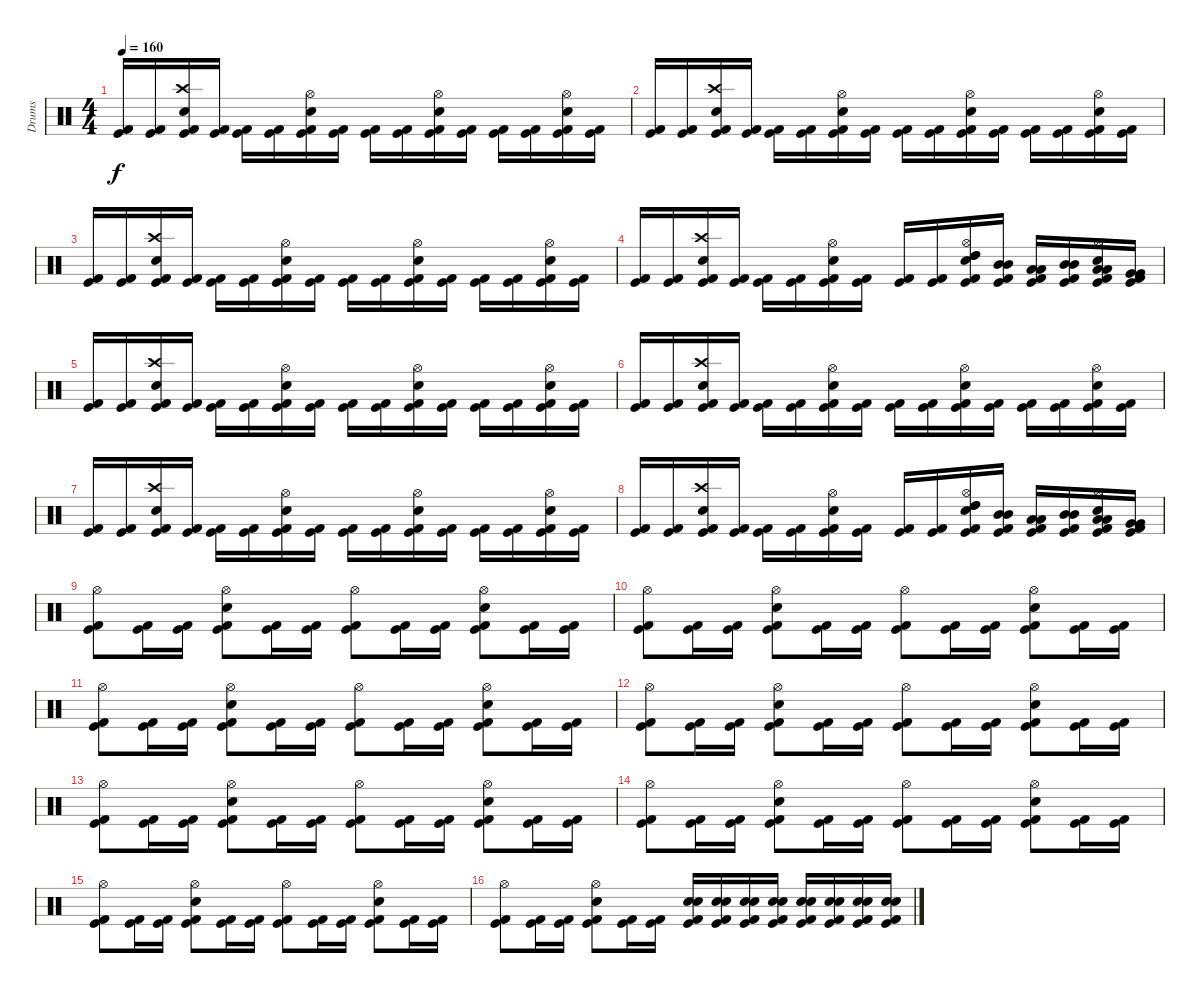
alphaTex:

\track ("Drums" "Drums") {instrument percussion}
\staff {score}
\articulation defaults
\ts (4 4)
\tempo 160
\clef neutral
\ks c
("Kick (hit) 2" "Kick (hit)").16{dy f} ("Kick (hit) 2" "Kick (hit)").16 ("Kick (hit) 2" "Kick (hit)" "Crash high (hit)" "Snare (hit) 2").16 ("Kick (hit) 2" "Kick (hit)").16 ("Kick (hit) 2" "Kick (hit)").16 ("Kick (hit) 2" "Kick (hit)").16 ("Kick (hit) 2" "Kick (hit)" "Hi-Hat (open)" "Snare (hit) 2").16 ("Kick (hit) 2" "Kick (hit)").16 ("Kick (hit) 2" "Kick (hit)").16 ("Kick (hit) 2" "Kick (hit)").16 ("Kick (hit) 2" "Kick (hit)" "Hi-Hat (open)" "Snare (hit) 2").16 ("Kick (hit) 2" "Kick (hit)").16 ("Kick (hit) 2" "Kick (hit)").16 ("Kick (hit) 2" "Kick (hit)").16 ("Kick (hit) 2" "Kick (hit)" "Hi-Hat (open)" "Snare (hit) 2").16 ("Kick (hit) 2" "Kick (hit)").16 |
("Kick (hit) 2" "Kick (hit)").16 ("Kick (hit) 2" "Kick (hit)").16 ("Kick (hit) 2" "Kick (hit)" "Crash high (hit)" "Snare (hit) 2").16 ("Kick (hit) 2" "Kick (hit)").16 ("Kick (hit) 2" "Kick (hit)").16 ("Kick (hit) 2" "Kick (hit)").16 ("Kick (hit) 2" "Kick (hit)" "Hi-Hat (open)" "Snare (hit) 2").16 ("Kick (hit) 2" "Kick (hit)").16 ("Kick (hit) 2" "Kick (hit)").16 ("Kick (hit) 2" "Kick (hit)").16 ("Kick (hit) 2" "Kick (hit)" "Hi-Hat (open)" "Snare (hit) 2").16 ("Kick (hit) 2" "Kick (hit)").16 ("Kick (hit) 2" "Kick (hit)").16 ("Kick (hit) 2" "Kick (hit)").16 ("Kick (hit) 2" "Kick (hit)" "Hi-Hat (open)" "Snare (hit) 2").16 ("Kick (hit) 2" "Kick (hit)").16 |
("Kick (hit) 2" "Kick (hit)").16 ("Kick (hit) 2" "Kick (hit)").16 ("Kick (hit) 2" "Kick (hit)" "Crash high (hit)" "Snare (hit) 2").16 ("Kick (hit) 2" "Kick (hit)").16 ("Kick (hit) 2" "Kick (hit)").16 ("Kick (hit) 2" "Kick (hit)").16 ("Kick (hit) 2" "Kick (hit)" "Hi-Hat (open)" "Snare (hit) 2").16 ("Kick (hit) 2" "Kick (hit)").16 ("Kick (hit) 2" "Kick (hit)").16 ("Kick (hit) 2" "Kick (hit)").16 ("Kick (hit) 2" "Kick (hit)" "Hi-Hat (open)" "Snare (hit) 2").16 ("Kick (hit) 2" "Kick (hit)").16 ("Kick (hit) 2" "Kick (hit)").16 ("Kick (hit) 2" "Kick (hit)").16 ("Kick (hit) 2" "Kick (hit)" "Hi-Hat (open)" "Snare (hit) 2").16 ("Kick (hit) 2" "Kick (hit)").16 |
("Kick (hit) 2" "Kick (hit)").16 ("Kick (hit) 2" "Kick (hit)").16 ("Kick (hit) 2" "Kick (hit)" "Crash high (hit)" "Snare (hit) 2").16 ("Kick (hit) 2" "Kick (hit)").16 ("Kick (hit) 2" "Kick (hit)").16 ("Kick (hit) 2" "Kick (hit)").16 ("Kick (hit) 2" "Kick (hit)" "Hi-Hat (open)" "Snare (hit) 2").16 ("Kick (hit) 2" "Kick (hit)").16 ("Kick (hit) 2" "Kick (hit)").16 ("Kick (hit) 2" "Kick (hit)").16 ("Kick (hit) 2" "Kick (hit)" "Hi-Hat (open)" "Snare (hit) 2" "High Tom (hit)" "High Tom (hit)").16 ("Mid Tom (hit)" "Mid Tom (hit)" "Kick (hit) 2" "Kick (hit)").16 ("Low Tom (hit)" "Low Tom (hit)" "Kick (hit) 2" "Kick (hit)").16 ("Mid Tom (hit)" "Mid Tom (hit)" "Kick (hit) 2" "Kick (hit)").16 ("Low Tom (hit)" "Low Tom (hit)" "Hi-Hat (open)" "Snare (hit) 2" "Kick (hit) 2" "Kick (hit)").16 ("Very Low Tom (hit)" "Very Low Tom (hit)" "Kick (hit) 2" "Kick (hit)").16 |
("Kick (hit) 2" "Kick (hit)").16 ("Kick (hit) 2" "Kick (hit)").16 ("Kick (hit) 2" "Kick (hit)" "Crash high (hit)" "Snare (hit) 2").16 ("Kick (hit) 2" "Kick (hit)").16 ("Kick (hit) 2" "Kick (hit)").16 ("Kick (hit) 2" "Kick (hit)").16 ("Kick (hit) 2" "Kick (hit)" "Hi-Hat (open)" "Snare (hit) 2").16 ("Kick (hit) 2" "Kick (hit)").16 ("Kick (hit) 2" "Kick (hit)").16 ("Kick (hit) 2" "Kick (hit)").16 ("Kick (hit) 2" "Kick (hit)" "Hi-Hat (open)" "Snare (hit) 2").16 ("Kick (hit) 2" "Kick (hit)").16 ("Kick (hit) 2" "Kick (hit)").16 ("Kick (hit) 2" "Kick (hit)").16 ("Kick (hit) 2" "Kick (hit)" "Hi-Hat (open)" "Snare (hit) 2").16 ("Kick (hit) 2" "Kick (hit)").16 |
("Kick (hit) 2" "Kick (hit)").16 ("Kick (hit) 2" "Kick (hit)").16 ("Kick (hit) 2" "Kick (hit)" "Crash high (hit)" "Snare (hit) 2").16 ("Kick (hit) 2" "Kick (hit)").16 ("Kick (hit) 2" "Kick (hit)").16 ("Kick (hit) 2" "Kick (hit)").16 ("Kick (hit) 2" "Kick (hit)" "Hi-Hat (open)" "Snare (hit) 2").16 ("Kick (hit) 2" "Kick (hit)").16 ("Kick (hit) 2" "Kick (hit)").16 ("Kick (hit) 2" "Kick (hit)").16 ("Kick (hit) 2" "Kick (hit)" "Hi-Hat (open)" "Snare (hit) 2").16 ("Kick (hit) 2" "Kick (hit)").16 ("Kick (hit) 2" "Kick (hit)").16 ("Kick (hit) 2" "Kick (hit)").16 ("Kick (hit) 2" "Kick (hit)" "Hi-Hat (open)" "Snare (hit) 2").16 ("Kick (hit) 2" "Kick (hit)").16 |
("Kick (hit) 2" "Kick (hit)").16 ("Kick (hit) 2" "Kick (hit)").16 ("Kick (hit) 2" "Kick (hit)" "Crash high (hit)" "Snare (hit) 2").16 ("Kick (hit) 2" "Kick (hit)").16 ("Kick (hit) 2" "Kick (hit)").16 ("Kick (hit) 2" "Kick (hit)").16 ("Kick (hit) 2" "Kick (hit)" "Hi-Hat (open)" "Snare (hit) 2").16 ("Kick (hit) 2" "Kick (hit)").16 ("Kick (hit) 2" "Kick (hit)").16 ("Kick (hit) 2" "Kick (hit)").16 ("Kick (hit) 2" "Kick (hit)" "Hi-Hat (open)" "Snare (hit) 2").16 ("Kick (hit) 2" "Kick (hit)").16 ("Kick (hit) 2" "Kick (hit)").16 ("Kick (hit) 2" "Kick (hit)").16 ("Kick (hit) 2" "Kick (hit)" "Hi-Hat (open)" "Snare (hit) 2").16 ("Kick (hit) 2" "Kick (hit)").16 |
("Kick (hit) 2" "Kick (hit)").16 ("Kick (hit) 2" "Kick (hit)").16 ("Kick (hit) 2" "Kick (hit)" "Crash high (hit)" "Snare (hit) 2").16 ("Kick (hit) 2" "Kick (hit)").16 ("Kick (hit) 2" "Kick (hit)").16 ("Kick (hit) 2" "Kick (hit)").16 ("Kick (hit) 2" "Kick (hit)" "Hi-Hat (open)" "Snare (hit) 2").16 ("Kick (hit) 2" "Kick (hit)").16 ("Kick (hit) 2" "Kick (hit)").16 ("Kick (hit) 2" "Kick (hit)").16 ("Kick (hit) 2" "Kick (hit)" "Hi-Hat (open)" "Snare (hit) 2" "High Tom (hit)" "High Tom (hit)").16 ("Mid Tom (hit)" "Mid Tom (hit)" "Kick (hit) 2" "Kick (hit)").16 ("Low Tom (hit)" "Low Tom (hit)" "Kick (hit) 2" "Kick (hit)").16 ("Mid Tom (hit)" "Mid Tom (hit)" "Kick (hit) 2" "Kick (hit)").16 ("Low Tom (hit)" "Low Tom (hit)" "Hi-Hat (open)" "Snare (hit) 2" "Kick (hit) 2" "Kick (hit)").16 ("Very Low Tom (hit)" "Very Low Tom (hit)" "Kick (hit) 2" "Kick (hit)").16 |
("Kick (hit) 2" "Kick (hit)" "Hi-Hat (open)").8 ("Kick (hit) 2" "Kick (hit)").16 ("Kick (hit) 2" "Kick (hit)").16 ("Kick (hit) 2" "Kick (hit)" "Snare (hit) 2" "Hi-Hat (open)").8 ("Kick (hit) 2" "Kick (hit)").16 ("Kick (hit) 2" "Kick (hit)").16 ("Kick (hit) 2" "Kick (hit)" "Hi-Hat (open)").8 ("Kick (hit) 2" "Kick (hit)").16 ("Kick (hit) 2" "Kick (hit)").16 ("Kick (hit) 2" "Kick (hit)" "Snare (hit) 2" "Hi-Hat (open)").8 ("Kick (hit) 2" "Kick (hit)").16 ("Kick (hit) 2" "Kick (hit)").16 |
("Kick (hit) 2" "Kick (hit)" "Hi-Hat (open)").8 ("Kick (hit) 2" "Kick (hit)").16 ("Kick (hit) 2" "Kick (hit)").16 ("Kick (hit) 2" "Kick (hit)" "Snare (hit) 2" "Hi-Hat (open)").8 ("Kick (hit) 2" "Kick (hit)").16 ("Kick (hit) 2" "Kick (hit)").16 ("Kick (hit) 2" "Kick (hit)" "Hi-Hat (open)").8 ("Kick (hit) 2" "Kick (hit)").16 ("Kick (hit) 2" "Kick (hit)").16 ("Kick (hit) 2" "Kick (hit)" "Snare (hit) 2" "Hi-Hat (open)").8 ("Kick (hit) 2" "Kick (hit)").16 ("Kick (hit) 2" "Kick (hit)").16 |
("Kick (hit) 2" "Kick (hit)" "Hi-Hat (open)").8 ("Kick (hit) 2" "Kick (hit)").16 ("Kick (hit) 2" "Kick (hit)").16 ("Kick (hit) 2" "Kick (hit)" "Snare (hit) 2" "Hi-Hat (open)").8 ("Kick (hit) 2" "Kick (hit)").16 ("Kick (hit) 2" "Kick (hit)").16 ("Kick (hit) 2" "Kick (hit)" "Hi-Hat (open)").8 ("Kick (hit) 2" "Kick (hit)").16 ("Kick (hit) 2" "Kick (hit)").16 ("Kick (hit) 2" "Kick (hit)" "Snare (hit) 2" "Hi-Hat (open)").8 ("Kick (hit) 2" "Kick (hit)").16 ("Kick (hit) 2" "Kick (hit)").16 |
("Kick (hit) 2" "Kick (hit)" "Hi-Hat (open)").8 ("Kick (hit) 2" "Kick (hit)").16 ("Kick (hit) 2" "Kick (hit)").16 ("Kick (hit) 2" "Kick (hit)" "Snare (hit) 2" "Hi-Hat (open)").8 ("Kick (hit) 2" "Kick (hit)").16 ("Kick (hit) 2" "Kick (hit)").16 ("Kick (hit) 2" "Kick (hit)" "Hi-Hat (open)").8 ("Kick (hit) 2" "Kick (hit)").16 ("Kick (hit) 2" "Kick (hit)").16 ("Kick (hit) 2" "Kick (hit)" "Snare (hit) 2" "Hi-Hat (open)").8 ("Kick (hit) 2" "Kick (hit)").16 ("Kick (hit) 2" "Kick (hit)").16 |
("Kick (hit) 2" "Kick (hit)" "Hi-Hat (open)").8 ("Kick (hit) 2" "Kick (hit)").16 ("Kick (hit) 2" "Kick (hit)").16 ("Kick (hit) 2" "Kick (hit)" "Snare (hit) 2" "Hi-Hat (open)").8 ("Kick (hit) 2" "Kick (hit)").16 ("Kick (hit) 2" "Kick (hit)").16 ("Kick (hit) 2" "Kick (hit)" "Hi-Hat (open)").8 ("Kick (hit) 2" "Kick (hit)").16 ("Kick (hit) 2" "Kick (hit)").16 ("Kick (hit) 2" "Kick (hit)" "Snare (hit) 2" "Hi-Hat (open)").8 ("Kick (hit) 2" "Kick (hit)").16 ("Kick (hit) 2" "Kick (hit)").16 |
("Kick (hit) 2" "Kick (hit)" "Hi-Hat (open)").8 ("Kick (hit) 2" "Kick (hit)").16 ("Kick (hit) 2" "Kick (hit)").16 ("Kick (hit) 2" "Kick (hit)" "Snare (hit) 2" "Hi-Hat (open)").8 ("Kick (hit) 2" "Kick (hit)").16 ("Kick (hit) 2" "Kick (hit)").16 ("Kick (hit) 2" "Kick (hit)" "Hi-Hat (open)").8 ("Kick (hit) 2" "Kick (hit)").16 ("Kick (hit) 2" "Kick (hit)").16 ("Kick (hit) 2" "Kick (hit)" "Snare (hit) 2" "Hi-Hat (open)").8 ("Kick (hit) 2" "Kick (hit)").16 ("Kick (hit) 2" "Kick (hit)").16 |
("Kick (hit) 2" "Kick (hit)" "Hi-Hat (open)").8 ("Kick (hit) 2" "Kick (hit)").16 ("Kick (hit) 2" "Kick (hit)").16 ("Kick (hit) 2" "Kick (hit)" "Snare (hit) 2" "Hi-Hat (open)").8 ("Kick (hit) 2" "Kick (hit)").16 ("Kick (hit) 2" "Kick (hit)").16 ("Kick (hit) 2" "Kick (hit)" "Hi-Hat (open)").8 ("Kick (hit) 2" "Kick (hit)").16 ("Kick (hit) 2" "Kick (hit)").16 ("Kick (hit) 2" "Kick (hit)" "Snare (hit) 2" "Hi-Hat (open)").8 ("Kick (hit) 2" "Kick (hit)").16 ("Kick (hit) 2" "Kick (hit)").16 |
("Kick (hit) 2" "Kick (hit)" "Hi-Hat (open)").8 ("Kick (hit) 2" "Kick (hit)").16 ("Kick (hit) 2" "Kick (hit)").16 ("Kick (hit) 2" "Kick (hit)" "Snare (hit) 2" "Hi-Hat (open)").8 ("Kick (hit) 2" "Kick (hit)").16 ("Kick (hit) 2" "Kick (hit)").16 ("Kick (hit) 2" "Kick (hit)" "Snare (hit) 2" "Snare (hit) 2").16 ("Kick (hit) 2" "Kick (hit)" "Snare (hit) 2" "Snare (hit) 2").16 ("Kick (hit) 2" "Kick (hit)" "Snare (hit) 2" "Snare (hit) 2").16 ("Kick (hit) 2" "Kick (hit)" "Snare (hit) 2" "Snare (hit) 2").16 ("Kick (hit) 2" "Kick (hit)" "Snare (hit) 2" "Snare (hit) 2").16 ("Kick (hit) 2" "Kick (hit)" "Snare (hit) 2" "Snare (hit) 2").16 ("Kick (hit) 2" "Kick (hit)" "Snare (hit) 2" "Snare (hit) 2").16 ("Kick (hit) 2" "Kick (hit)" "Snare (hit) 2" "Snare (hit) 2").16
